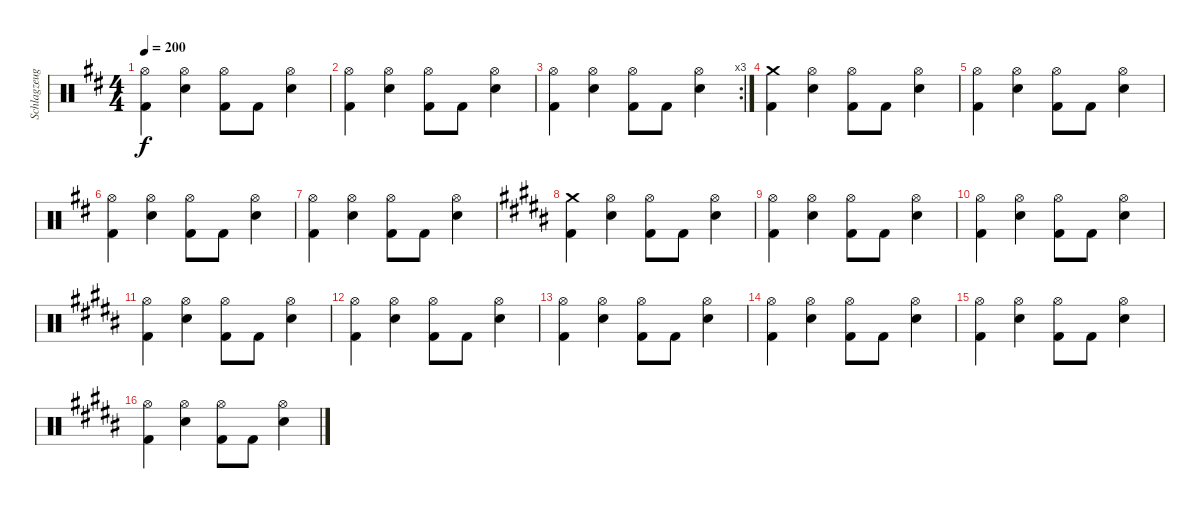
\track ("Schlagzeug" "Schlagzeug") {instrument percussion}
\staff {score}
\articulation defaults
\ts (4 4)
\tempo 200
\clef neutral
\ks d
("Hi-Hat (open)" "Kick (hit) 2").4{dy f} ("Hi-Hat (open)" "Snare (hit) 2").4 ("Hi-Hat (open)" "Kick (hit) 2").8 "Kick (hit) 2".8 ("Hi-Hat (open)" "Snare (hit) 2").4 |
("Hi-Hat (open)" "Kick (hit) 2").4 ("Hi-Hat (open)" "Snare (hit) 2").4 ("Hi-Hat (open)" "Kick (hit) 2").8 "Kick (hit) 2".8 ("Hi-Hat (open)" "Snare (hit) 2").4 |
\rc 3
("Hi-Hat (open)" "Kick (hit) 2").4 ("Hi-Hat (open)" "Snare (hit) 2").4 ("Hi-Hat (open)" "Kick (hit) 2").8 "Kick (hit) 2".8 ("Hi-Hat (open)" "Snare (hit) 2").4 |
("Crash medium (hit)" "Kick (hit) 2").4 ("Hi-Hat (open)" "Snare (hit) 2").4 ("Hi-Hat (open)" "Kick (hit) 2").8 "Kick (hit) 2".8 ("Hi-Hat (open)" "Snare (hit) 2").4 |
("Hi-Hat (open)" "Kick (hit) 2").4 ("Hi-Hat (open)" "Snare (hit) 2").4 ("Hi-Hat (open)" "Kick (hit) 2").8 "Kick (hit) 2".8 ("Hi-Hat (open)" "Snare (hit) 2").4 |
("Hi-Hat (open)" "Kick (hit) 2").4 ("Hi-Hat (open)" "Snare (hit) 2").4 ("Hi-Hat (open)" "Kick (hit) 2").8 "Kick (hit) 2".8 ("Hi-Hat (open)" "Snare (hit) 2").4 |
("Hi-Hat (open)" "Kick (hit) 2").4 ("Hi-Hat (open)" "Snare (hit) 2").4 ("Hi-Hat (open)" "Kick (hit) 2").8 "Kick (hit) 2".8 ("Hi-Hat (open)" "Snare (hit) 2").4 |
\ks b
("Crash medium (hit)" "Kick (hit) 2").4 ("Hi-Hat (open)" "Snare (hit) 2").4 ("Hi-Hat (open)" "Kick (hit) 2").8 "Kick (hit) 2".8 ("Hi-Hat (open)" "Snare (hit) 2").4 |
("Hi-Hat (open)" "Kick (hit) 2").4 ("Hi-Hat (open)" "Snare (hit) 2").4 ("Hi-Hat (open)" "Kick (hit) 2").8 "Kick (hit) 2".8 ("Hi-Hat (open)" "Snare (hit) 2").4 |
("Hi-Hat (open)" "Kick (hit) 2").4 ("Hi-Hat (open)" "Snare (hit) 2").4 ("Hi-Hat (open)" "Kick (hit) 2").8 "Kick (hit) 2".8 ("Hi-Hat (open)" "Snare (hit) 2").4 |
("Hi-Hat (open)" "Kick (hit) 2").4 ("Hi-Hat (open)" "Snare (hit) 2").4 ("Hi-Hat (open)" "Kick (hit) 2").8 "Kick (hit) 2".8 ("Hi-Hat (open)" "Snare (hit) 2").4 |
("Hi-Hat (open)" "Kick (hit) 2").4 ("Hi-Hat (open)" "Snare (hit) 2").4 ("Hi-Hat (open)" "Kick (hit) 2").8 "Kick (hit) 2".8 ("Hi-Hat (open)" "Snare (hit) 2").4 |
("Hi-Hat (open)" "Kick (hit) 2").4 ("Hi-Hat (open)" "Snare (hit) 2").4 ("Hi-Hat (open)" "Kick (hit) 2").8 "Kick (hit) 2".8 ("Hi-Hat (open)" "Snare (hit) 2").4 |
("Hi-Hat (open)" "Kick (hit) 2").4 ("Hi-Hat (open)" "Snare (hit) 2").4 ("Hi-Hat (open)" "Kick (hit) 2").8 "Kick (hit) 2".8 ("Hi-Hat (open)" "Snare (hit) 2").4 |
("Hi-Hat (open)" "Kick (hit) 2").4 ("Hi-Hat (open)" "Snare (hit) 2").4 ("Hi-Hat (open)" "Kick (hit) 2").8 "Kick (hit) 2".8 ("Hi-Hat (open)" "Snare (hit) 2").4 |
("Hi-Hat (open)" "Kick (hit) 2").4 ("Hi-Hat (open)" "Snare (hit) 2").4 ("Hi-Hat (open)" "Kick (hit) 2").8 "Kick (hit) 2".8 ("Hi-Hat (open)" "Snare (hit) 2").4
